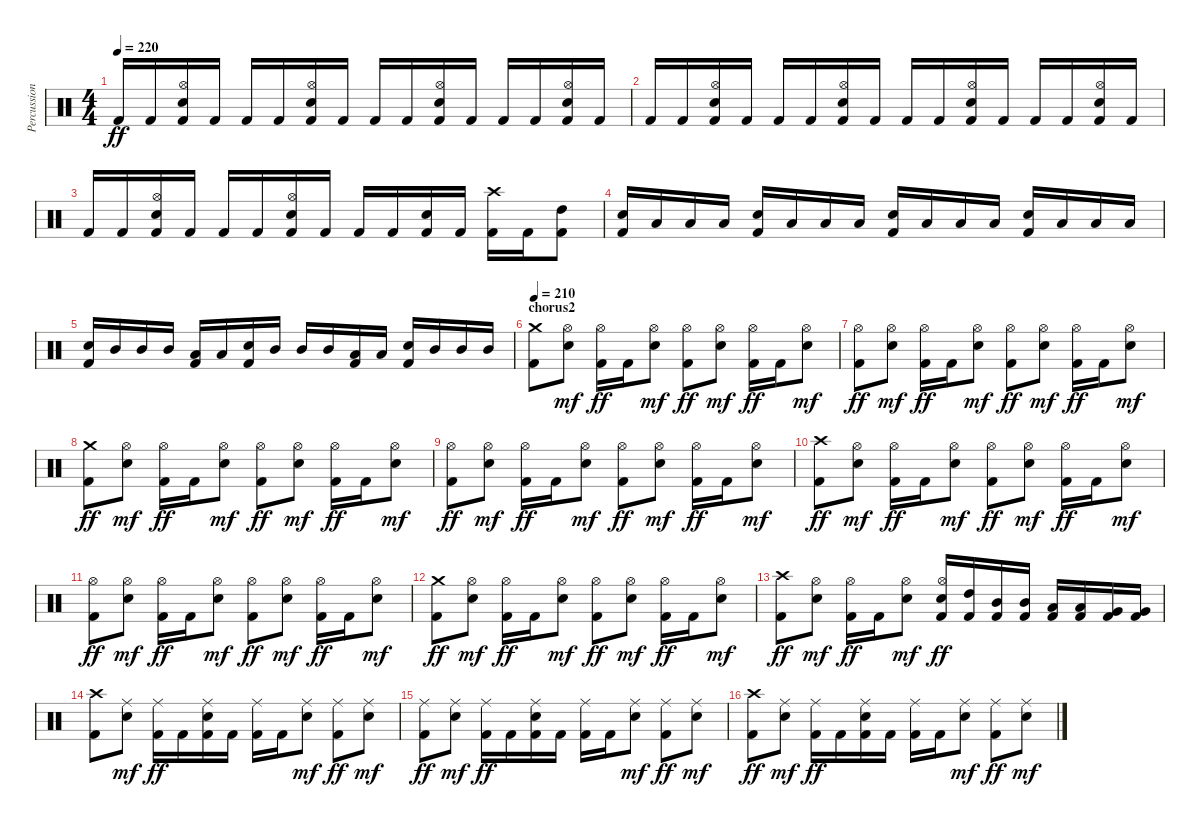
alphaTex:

\track ("Percussion" "Percussion") {instrument percussion}
\staff {score}
\articulation defaults
\ts (4 4)
\tempo 220
\clef neutral
\ks c "Kick (hit) 2".16{dy ff} "Kick (hit) 2".16
("Hi-Hat (open)" "Snare (hit) 2" "Kick (hit) 2").16 "Kick (hit) 2".16 "Kick (hit) 2".16 "Kick (hit) 2".16 ("Hi-Hat (open)" "Snare (hit) 2" "Kick (hit) 2").16 "Kick (hit) 2".16 "Kick (hit) 2".16 "Kick (hit) 2".16 ("Hi-Hat (open)" "Snare (hit) 2" "Kick (hit) 2").16 "Kick (hit) 2".16 "Kick (hit) 2".16 "Kick (hit) 2".16 ("Hi-Hat (open)" "Snare (hit) 2" "Kick (hit) 2").16 "Kick (hit) 2".16 |
"Kick (hit) 2".16 "Kick (hit) 2".16 ("Hi-Hat (open)" "Snare (hit) 2" "Kick (hit) 2").16 "Kick (hit) 2".16 "Kick (hit) 2".16 "Kick (hit) 2".16 ("Hi-Hat (open)" "Snare (hit) 2" "Kick (hit) 2").16 "Kick (hit) 2".16 "Kick (hit) 2".16 "Kick (hit) 2".16 ("Hi-Hat (open)" "Snare (hit) 2" "Kick (hit) 2").16 "Kick (hit) 2".16 "Kick (hit) 2".16 "Kick (hit) 2".16 ("Hi-Hat (open)" "Snare (hit) 2" "Kick (hit) 2").16 "Kick (hit) 2".16 |
"Kick (hit) 2".16 "Kick (hit) 2".16 ("Hi-Hat (open)" "Snare (hit) 2" "Kick (hit) 2").16 "Kick (hit) 2".16 "Kick (hit) 2".16 "Kick (hit) 2".16 ("Hi-Hat (open)" "Snare (hit) 2" "Kick (hit) 2").16 "Kick (hit) 2".16 "Kick (hit) 2".16 "Kick (hit) 2".16 ("Snare (hit) 2" "Kick (hit) 2").16 "Kick (hit) 2".16 ("Crash high (hit)" "Kick (hit) 2").16 "Kick (hit) 2".16 ("High Tom (hit)" "Kick (hit) 2").8 |
("Snare (hit) 2" "Kick (hit) 2").16 "Low Tom (hit)".16 "Low Tom (hit)".16 "Low Tom (hit)".16 ("Snare (hit) 2" "Kick (hit) 2").16 "Low Tom (hit)".16 "Low Tom (hit)".16 "Low Tom (hit)".16 ("Snare (hit) 2" "Kick (hit) 2").16 "Low Tom (hit)".16 "Low Tom (hit)".16 "Low Tom (hit)".16 ("Snare (hit) 2" "Kick (hit) 2").16 "Low Tom (hit)".16 "Low Tom (hit)".16 "Low Tom (hit)".16 |
("Snare (hit) 2" "Kick (hit) 2").16 "Mid Tom (hit)".16 "Mid Tom (hit)".16 "Mid Tom (hit)".16 ("Low Tom (hit)" "Kick (hit) 2").16 "Low Tom (hit)".16 ("Snare (hit) 2" "Kick (hit) 2").16 "Mid Tom (hit)".16 "Mid Tom (hit)".16 "Mid Tom (hit)".16 ("Low Tom (hit)" "Kick (hit) 2").16 "Low Tom (hit)".16 ("Snare (hit) 2" "Kick (hit) 2").16 "Mid Tom (hit)".16 "Mid Tom (hit)".16 "Mid Tom (hit)".16 |
\section ("" "chorus2")
\tempo 210
("Crash medium (hit)" "Kick (hit) 2").8 ("Hi-Hat (open)" "Snare (hit) 2").8{dy mf} ("Hi-Hat (open)" "Kick (hit) 2").16{dy ff} "Kick (hit) 2".16 ("Hi-Hat (open)" "Snare (hit) 2").8{dy mf} ("Hi-Hat (open)" "Kick (hit) 2").8{dy ff} ("Hi-Hat (open)" "Snare (hit) 2").8{dy mf} ("Hi-Hat (open)" "Kick (hit) 2").16{dy ff} "Kick (hit) 2".16 ("Hi-Hat (open)" "Snare (hit) 2").8{dy mf} |
("Hi-Hat (open)" "Kick (hit) 2").8{dy ff} ("Hi-Hat (open)" "Snare (hit) 2").8{dy mf} ("Hi-Hat (open)" "Kick (hit) 2").16{dy ff} "Kick (hit) 2".16 ("Hi-Hat (open)" "Snare (hit) 2").8{dy mf} ("Hi-Hat (open)" "Kick (hit) 2").8{dy ff} ("Hi-Hat (open)" "Snare (hit) 2").8{dy mf} ("Hi-Hat (open)" "Kick (hit) 2").16{dy ff} "Kick (hit) 2".16 ("Hi-Hat (open)" "Snare (hit) 2").8{dy mf} |
("Crash medium (hit)" "Kick (hit) 2").8{dy ff} ("Hi-Hat (open)" "Snare (hit) 2").8{dy mf} ("Hi-Hat (open)" "Kick (hit) 2").16{dy ff} "Kick (hit) 2".16 ("Hi-Hat (open)" "Snare (hit) 2").8{dy mf} ("Hi-Hat (open)" "Kick (hit) 2").8{dy ff} ("Hi-Hat (open)" "Snare (hit) 2").8{dy mf} ("Hi-Hat (open)" "Kick (hit) 2").16{dy ff} "Kick (hit) 2".16 ("Hi-Hat (open)" "Snare (hit) 2").8{dy mf} |
("Hi-Hat (open)" "Kick (hit) 2").8{dy ff} ("Hi-Hat (open)" "Snare (hit) 2").8{dy mf} ("Hi-Hat (open)" "Kick (hit) 2").16{dy ff} "Kick (hit) 2".16 ("Hi-Hat (open)" "Snare (hit) 2").8{dy mf} ("Hi-Hat (open)" "Kick (hit) 2").8{dy ff} ("Hi-Hat (open)" "Snare (hit) 2").8{dy mf} ("Hi-Hat (open)" "Kick (hit) 2").16{dy ff} "Kick (hit) 2".16 ("Hi-Hat (open)" "Snare (hit) 2").8{dy mf} |
("Crash high (hit)" "Kick (hit) 2").8{dy ff} ("Hi-Hat (open)" "Snare (hit) 2").8{dy mf} ("Hi-Hat (open)" "Kick (hit) 2").16{dy ff} "Kick (hit) 2".16 ("Hi-Hat (open)" "Snare (hit) 2").8{dy mf} ("Hi-Hat (open)" "Kick (hit) 2").8{dy ff} ("Hi-Hat (open)" "Snare (hit) 2").8{dy mf} ("Hi-Hat (open)" "Kick (hit) 2").16{dy ff} "Kick (hit) 2".16 ("Hi-Hat (open)" "Snare (hit) 2").8{dy mf} |
("Hi-Hat (open)" "Kick (hit) 2").8{dy ff} ("Hi-Hat (open)" "Snare (hit) 2").8{dy mf} ("Hi-Hat (open)" "Kick (hit) 2").16{dy ff} "Kick (hit) 2".16 ("Hi-Hat (open)" "Snare (hit) 2").8{dy mf} ("Hi-Hat (open)" "Kick (hit) 2").8{dy ff} ("Hi-Hat (open)" "Snare (hit) 2").8{dy mf} ("Hi-Hat (open)" "Kick (hit) 2").16{dy ff} "Kick (hit) 2".16 ("Hi-Hat (open)" "Snare (hit) 2").8{dy mf} |
("Crash medium (hit)" "Kick (hit) 2").8{dy ff} ("Hi-Hat (open)" "Snare (hit) 2").8{dy mf} ("Hi-Hat (open)" "Kick (hit) 2").16{dy ff} "Kick (hit) 2".16 ("Hi-Hat (open)" "Snare (hit) 2").8{dy mf} ("Hi-Hat (open)" "Kick (hit) 2").8{dy ff} ("Hi-Hat (open)" "Snare (hit) 2").8{dy mf} ("Hi-Hat (open)" "Kick (hit) 2").16{dy ff} "Kick (hit) 2".16 ("Hi-Hat (open)" "Snare (hit) 2").8{dy mf} |
("Crash high (hit)" "Kick (hit) 2").8{dy ff} ("Hi-Hat (open)" "Snare (hit) 2").8{dy mf} ("Hi-Hat (open)" "Kick (hit) 2").16{dy ff} "Kick (hit) 2".16 ("Hi-Hat (open)" "Snare (hit) 2").8{dy mf} ("Hi-Hat (open)" "Snare (hit) 2" "Kick (hit) 2").16{dy ff} ("High Tom (hit)" "Kick (hit) 2").16 ("Mid Tom (hit)" "Kick (hit) 2").16 ("Mid Tom (hit)" "Kick (hit) 2").16 ("Low Tom (hit)" "Kick (hit) 2").16 ("Low Tom (hit)" "Kick (hit) 2").16 ("Very Low Tom (hit)" "Kick (hit) 2").16 ("Very Low Tom (hit)" "Kick (hit) 2").16 |
("Crash high (hit)" "Kick (hit) 2").8 ("Ride (middle)" "Snare (hit) 2").8{dy mf} ("Ride (middle)" "Kick (hit) 2").16{dy ff} "Kick (hit) 2".16 ("Ride (middle)" "Snare (hit) 2" "Kick (hit) 2").16 "Kick (hit) 2".16 ("Ride (middle)" "Kick (hit) 2").16 "Kick (hit) 2".16 ("Ride (middle)" "Snare (hit) 2").8{dy mf} ("Ride (middle)" "Kick (hit) 2").8{dy ff} ("Ride (middle)" "Snare (hit) 2").8{dy mf} |
("Ride (middle)" "Kick (hit) 2").8{dy ff} ("Ride (middle)" "Snare (hit) 2").8{dy mf} ("Ride (middle)" "Kick (hit) 2").16{dy ff} "Kick (hit) 2".16 ("Ride (middle)" "Snare (hit) 2" "Kick (hit) 2").16 "Kick (hit) 2".16 ("Ride (middle)" "Kick (hit) 2").16 "Kick (hit) 2".16 ("Ride (middle)" "Snare (hit) 2").8{dy mf} ("Ride (middle)" "Kick (hit) 2").8{dy ff} ("Ride (middle)" "Snare (hit) 2").8{dy mf} |
("Crash high (hit)" "Kick (hit) 2").8{dy ff} ("Ride (middle)" "Snare (hit) 2").8{dy mf} ("Ride (middle)" "Kick (hit) 2").16{dy ff} "Kick (hit) 2".16 ("Ride (middle)" "Snare (hit) 2" "Kick (hit) 2").16 "Kick (hit) 2".16 ("Ride (middle)" "Kick (hit) 2").16 "Kick (hit) 2".16 ("Ride (middle)" "Snare (hit) 2").8{dy mf} ("Ride (middle)" "Kick (hit) 2").8{dy ff} ("Ride (middle)" "Snare (hit) 2").8{dy mf}
